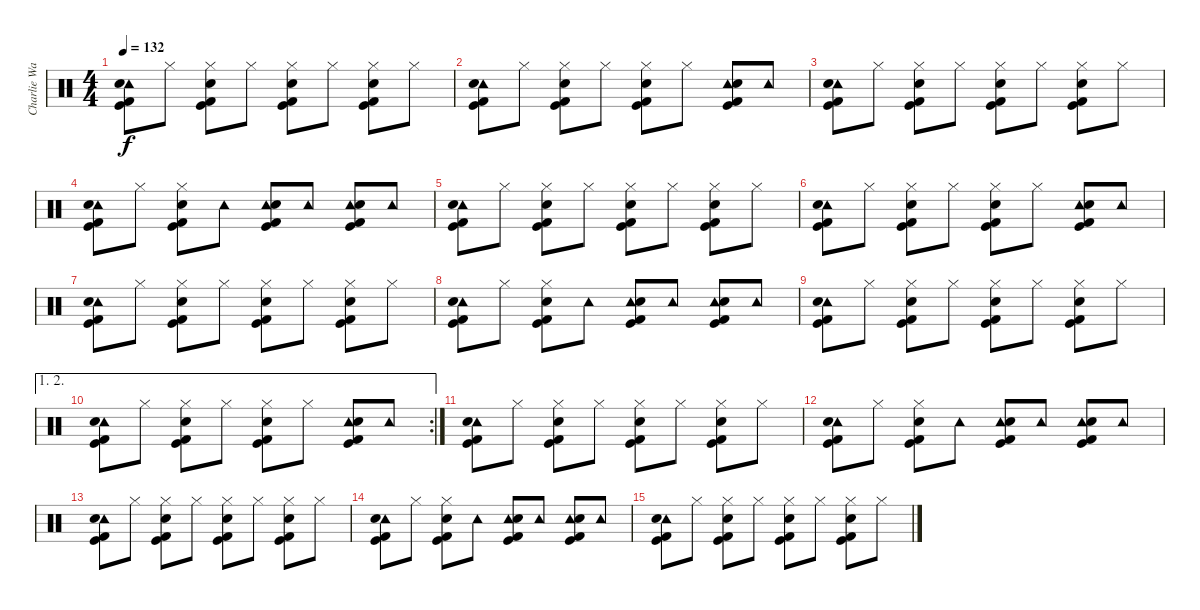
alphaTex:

\track ("Charlie Watts" "Charlie Wa") {instrument percussion}
\staff {score}
\articulation defaults
\ts (4 4)
\tempo 132
\clef neutral
\ks c
("Tambourine (hit)" "Electric Snare (hit)" "Kick (hit) 2" "Kick (hit)").8{dy f} "Hi-Hat (closed)".8 ("Hi-Hat (closed)" "Electric Snare (hit)" "Kick (hit) 2" "Kick (hit)").8 "Hi-Hat (closed)".8 ("Hi-Hat (closed)" "Electric Snare (hit)" "Kick (hit) 2" "Kick (hit)").8 "Hi-Hat (closed)".8 ("Hi-Hat (closed)" "Electric Snare (hit)" "Kick (hit) 2" "Kick (hit)").8 "Hi-Hat (closed)".8 |
("Tambourine (hit)" "Electric Snare (hit)" "Kick (hit) 2" "Kick (hit)").8 "Hi-Hat (closed)".8 ("Hi-Hat (closed)" "Electric Snare (hit)" "Kick (hit) 2" "Kick (hit)").8 "Hi-Hat (closed)".8 ("Hi-Hat (closed)" "Electric Snare (hit)" "Kick (hit) 2" "Kick (hit)").8 "Hi-Hat (closed)".8 ("Tambourine (hit)" "Electric Snare (hit)" "Kick (hit) 2" "Kick (hit)").8 "Tambourine (hit)".8 |
("Tambourine (hit)" "Electric Snare (hit)" "Kick (hit) 2" "Kick (hit)").8 "Hi-Hat (closed)".8 ("Hi-Hat (closed)" "Electric Snare (hit)" "Kick (hit) 2" "Kick (hit)").8 "Hi-Hat (closed)".8 ("Hi-Hat (closed)" "Electric Snare (hit)" "Kick (hit) 2" "Kick (hit)").8 "Hi-Hat (closed)".8 ("Hi-Hat (closed)" "Electric Snare (hit)" "Kick (hit) 2" "Kick (hit)").8 "Hi-Hat (closed)".8 |
("Tambourine (hit)" "Electric Snare (hit)" "Kick (hit) 2" "Kick (hit)").8 "Hi-Hat (closed)".8 ("Hi-Hat (closed)" "Electric Snare (hit)" "Kick (hit) 2" "Kick (hit)").8 "Tambourine (hit)".8 ("Tambourine (hit)" "Electric Snare (hit)" "Kick (hit) 2" "Kick (hit)").8 "Tambourine (hit)".8 ("Tambourine (hit)" "Electric Snare (hit)" "Kick (hit) 2" "Kick (hit)").8 "Tambourine (hit)".8 |
("Tambourine (hit)" "Electric Snare (hit)" "Kick (hit) 2" "Kick (hit)").8 "Hi-Hat (closed)".8 ("Hi-Hat (closed)" "Electric Snare (hit)" "Kick (hit) 2" "Kick (hit)").8 "Hi-Hat (closed)".8 ("Hi-Hat (closed)" "Electric Snare (hit)" "Kick (hit) 2" "Kick (hit)").8 "Hi-Hat (closed)".8 ("Hi-Hat (closed)" "Electric Snare (hit)" "Kick (hit) 2" "Kick (hit)").8 "Hi-Hat (closed)".8 |
("Tambourine (hit)" "Electric Snare (hit)" "Kick (hit) 2" "Kick (hit)").8 "Hi-Hat (closed)".8 ("Hi-Hat (closed)" "Electric Snare (hit)" "Kick (hit) 2" "Kick (hit)").8 "Hi-Hat (closed)".8 ("Hi-Hat (closed)" "Electric Snare (hit)" "Kick (hit) 2" "Kick (hit)").8 "Hi-Hat (closed)".8 ("Tambourine (hit)" "Electric Snare (hit)" "Kick (hit) 2" "Kick (hit)").8 "Tambourine (hit)".8 |
("Tambourine (hit)" "Electric Snare (hit)" "Kick (hit) 2" "Kick (hit)").8 "Hi-Hat (closed)".8 ("Hi-Hat (closed)" "Electric Snare (hit)" "Kick (hit) 2" "Kick (hit)").8 "Hi-Hat (closed)".8 ("Hi-Hat (closed)" "Electric Snare (hit)" "Kick (hit) 2" "Kick (hit)").8 "Hi-Hat (closed)".8 ("Hi-Hat (closed)" "Electric Snare (hit)" "Kick (hit) 2" "Kick (hit)").8 "Hi-Hat (closed)".8 |
("Tambourine (hit)" "Electric Snare (hit)" "Kick (hit) 2" "Kick (hit)").8 "Hi-Hat (closed)".8 ("Hi-Hat (closed)" "Electric Snare (hit)" "Kick (hit) 2" "Kick (hit)").8 "Tambourine (hit)".8 ("Tambourine (hit)" "Electric Snare (hit)" "Kick (hit) 2" "Kick (hit)").8 "Tambourine (hit)".8 ("Tambourine (hit)" "Electric Snare (hit)" "Kick (hit) 2" "Kick (hit)").8 "Tambourine (hit)".8 |
("Tambourine (hit)" "Electric Snare (hit)" "Kick (hit) 2" "Kick (hit)").8 "Hi-Hat (closed)".8 ("Hi-Hat (closed)" "Electric Snare (hit)" "Kick (hit) 2" "Kick (hit)").8 "Hi-Hat (closed)".8 ("Hi-Hat (closed)" "Electric Snare (hit)" "Kick (hit) 2" "Kick (hit)").8 "Hi-Hat (closed)".8 ("Hi-Hat (closed)" "Electric Snare (hit)" "Kick (hit) 2" "Kick (hit)").8 "Hi-Hat (closed)".8 |
\ae (1 2)
\rc 2
("Tambourine (hit)" "Electric Snare (hit)" "Kick (hit) 2" "Kick (hit)").8 "Hi-Hat (closed)".8 ("Hi-Hat (closed)" "Electric Snare (hit)" "Kick (hit) 2" "Kick (hit)").8 "Hi-Hat (closed)".8 ("Hi-Hat (closed)" "Electric Snare (hit)" "Kick (hit) 2" "Kick (hit)").8 "Hi-Hat (closed)".8 ("Tambourine (hit)" "Electric Snare (hit)" "Kick (hit) 2" "Kick (hit)").8 "Tambourine (hit)".8 |
("Tambourine (hit)" "Electric Snare (hit)" "Kick (hit) 2" "Kick (hit)").8 "Hi-Hat (closed)".8 ("Hi-Hat (closed)" "Electric Snare (hit)" "Kick (hit) 2" "Kick (hit)").8 "Hi-Hat (closed)".8 ("Hi-Hat (closed)" "Electric Snare (hit)" "Kick (hit) 2" "Kick (hit)").8 "Hi-Hat (closed)".8 ("Hi-Hat (closed)" "Electric Snare (hit)" "Kick (hit) 2" "Kick (hit)").8 "Hi-Hat (closed)".8 |
("Tambourine (hit)" "Electric Snare (hit)" "Kick (hit) 2" "Kick (hit)").8 "Hi-Hat (closed)".8 ("Hi-Hat (closed)" "Electric Snare (hit)" "Kick (hit) 2" "Kick (hit)").8 "Tambourine (hit)".8 ("Tambourine (hit)" "Electric Snare (hit)" "Kick (hit) 2" "Kick (hit)").8 "Tambourine (hit)".8 ("Tambourine (hit)" "Electric Snare (hit)" "Kick (hit) 2" "Kick (hit)").8 "Tambourine (hit)".8 |
("Tambourine (hit)" "Electric Snare (hit)" "Kick (hit) 2" "Kick (hit)").8 "Hi-Hat (closed)".8 ("Hi-Hat (closed)" "Electric Snare (hit)" "Kick (hit) 2" "Kick (hit)").8 "Hi-Hat (closed)".8 ("Hi-Hat (closed)" "Electric Snare (hit)" "Kick (hit) 2" "Kick (hit)").8 "Hi-Hat (closed)".8 ("Hi-Hat (closed)" "Electric Snare (hit)" "Kick (hit) 2" "Kick (hit)").8 "Hi-Hat (closed)".8 |
("Tambourine (hit)" "Electric Snare (hit)" "Kick (hit) 2" "Kick (hit)").8 "Hi-Hat (closed)".8 ("Hi-Hat (closed)" "Electric Snare (hit)" "Kick (hit) 2" "Kick (hit)").8 "Tambourine (hit)".8 ("Tambourine (hit)" "Electric Snare (hit)" "Kick (hit) 2" "Kick (hit)").8 "Tambourine (hit)".8 ("Tambourine (hit)" "Electric Snare (hit)" "Kick (hit) 2" "Kick (hit)").8 "Tambourine (hit)".8 |
("Tambourine (hit)" "Electric Snare (hit)" "Kick (hit) 2" "Kick (hit)").8 "Hi-Hat (closed)".8 ("Hi-Hat (closed)" "Electric Snare (hit)" "Kick (hit) 2" "Kick (hit)").8 "Hi-Hat (closed)".8 ("Hi-Hat (closed)" "Electric Snare (hit)" "Kick (hit) 2" "Kick (hit)").8 "Hi-Hat (closed)".8 ("Hi-Hat (closed)" "Electric Snare (hit)" "Kick (hit) 2" "Kick (hit)").8 "Hi-Hat (closed)".8
